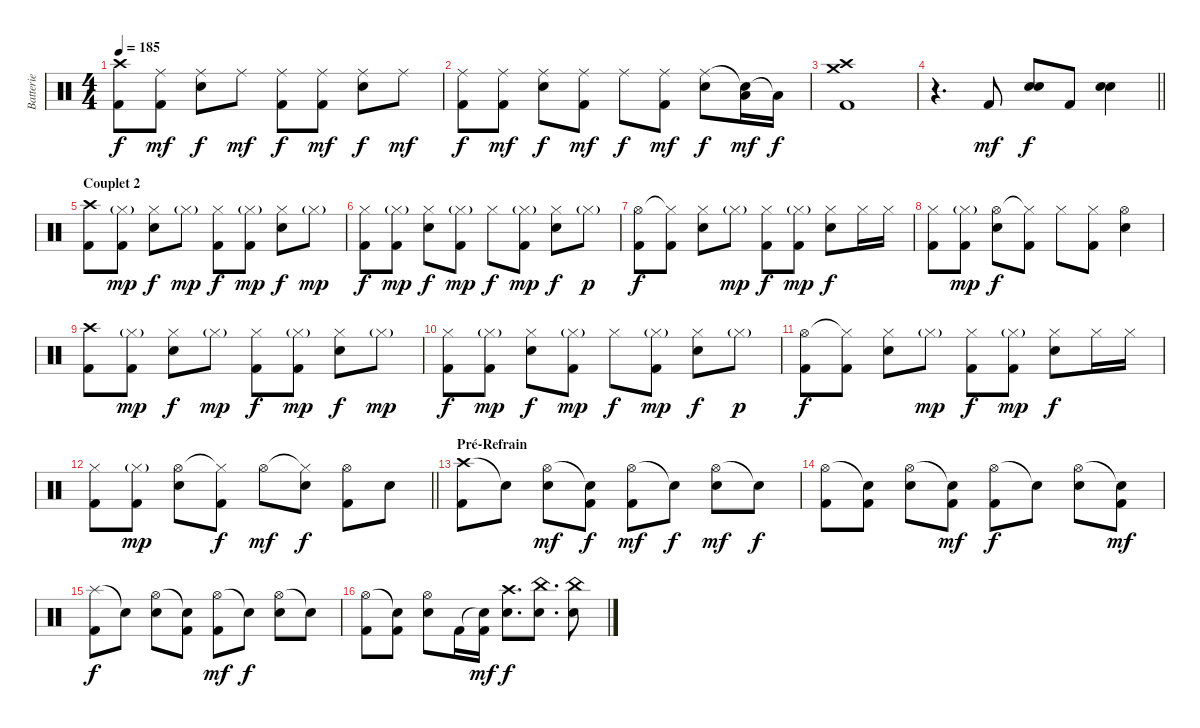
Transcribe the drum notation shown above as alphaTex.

\track ("Batterie" "Batterie") {instrument percussion}
\staff {score}
\articulation defaults
\ts (4 4)
\tempo 185
\clef neutral
\ks c
("Crash high (hit)" "Kick (hit) 2").8{dy f} ("Ride (middle)" "Kick (hit) 2").8{dy mf} ("Ride (middle)" "Electric Snare (hit)").8{dy f} "Ride (middle)".8{dy mf} ("Ride (middle)" "Kick (hit) 2").8{dy f} ("Ride (middle)" "Kick (hit) 2").8{dy mf} ("Ride (middle)" "Electric Snare (hit)").8{dy f} "Ride (middle)".8{dy mf} |
("Ride (middle)" "Kick (hit) 2").8{dy f} ("Ride (middle)" "Kick (hit) 2").8{dy mf} ("Ride (middle)" "Electric Snare (hit)").8{dy f} ("Ride (middle)" "Kick (hit) 2").8{dy mf} "Ride (middle)".8{dy f} ("Ride (middle)" "Kick (hit) 2").8{dy mf} ("Ride (middle)" "Electric Snare (hit)").8{dy f} ("Snare (hit)"{t} "Low Floor Tom (hit)").16{dy mf} "Low Floor Tom (hit)"{t}.16{dy f} |
("Crash high (hit)" "Crash medium (hit)" "Kick (hit) 2").1 |
\barLineRight lightlight
r.4{d} "Kick (hit) 2".8{dy mf} ("Electric Snare (hit)" "Electric Snare (hit)").8{dy f} "Kick (hit) 2".8 ("Electric Snare (hit)" "Electric Snare (hit)").4 |
\section ("" "Couplet 2")
("Crash high (hit)" "Kick (hit) 2").8 ("Hi-Hat (closed)"{g} "Kick (hit) 2").8{dy mp} ("Hi-Hat (closed)" "Electric Snare (hit)").8{dy f} "Hi-Hat (closed)"{g}.8{dy mp} ("Hi-Hat (closed)" "Kick (hit) 2").8{dy f} ("Hi-Hat (closed)"{g} "Kick (hit) 2").8{dy mp} ("Hi-Hat (closed)" "Electric Snare (hit)").8{dy f} "Hi-Hat (closed)"{g}.8{dy mp} |
("Hi-Hat (closed)" "Kick (hit) 2").8{dy f} ("Hi-Hat (closed)"{g} "Kick (hit) 2").8{dy mp} ("Hi-Hat (closed)" "Electric Snare (hit)").8{dy f} ("Hi-Hat (closed)"{g} "Kick (hit) 2").8{dy mp} "Hi-Hat (closed)".8{dy f} ("Hi-Hat (closed)"{g} "Kick (hit) 2").8{dy mp} ("Hi-Hat (closed)" "Electric Snare (hit)").8{dy f} "Hi-Hat (closed)"{g}.8{dy p} |
("Hi-Hat (open)" "Kick (hit) 2").8{dy f} ("Hi-Hat (closed)"{t} "Kick (hit) 2").8 ("Hi-Hat (closed)" "Electric Snare (hit)").8 "Hi-Hat (closed)"{g}.8{dy mp} ("Hi-Hat (closed)" "Kick (hit) 2").8{dy f} ("Hi-Hat (closed)"{g} "Kick (hit) 2").8{dy mp} ("Hi-Hat (closed)" "Electric Snare (hit)").8{dy f} "Hi-Hat (closed)".16 "Hi-Hat (closed)".16 |
("Hi-Hat (closed)" "Kick (hit) 2").8 ("Hi-Hat (closed)"{g} "Kick (hit) 2").8{dy mp} ("Hi-Hat (open)" "Electric Snare (hit)").8{dy f} ("Hi-Hat (closed)"{t} "Kick (hit) 2").8 "Hi-Hat (closed)".8 ("Hi-Hat (closed)" "Kick (hit) 2").8 ("Hi-Hat (open)" "Electric Snare (hit)").4 |
("Crash high (hit)" "Kick (hit) 2").8 ("Hi-Hat (closed)"{g} "Kick (hit) 2").8{dy mp} ("Hi-Hat (closed)" "Electric Snare (hit)").8{dy f} "Hi-Hat (closed)"{g}.8{dy mp} ("Hi-Hat (closed)" "Kick (hit) 2").8{dy f} ("Hi-Hat (closed)"{g} "Kick (hit) 2").8{dy mp} ("Hi-Hat (closed)" "Electric Snare (hit)").8{dy f} "Hi-Hat (closed)"{g}.8{dy mp} |
("Hi-Hat (closed)" "Kick (hit) 2").8{dy f} ("Hi-Hat (closed)"{g} "Kick (hit) 2").8{dy mp} ("Hi-Hat (closed)" "Electric Snare (hit)").8{dy f} ("Hi-Hat (closed)"{g} "Kick (hit) 2").8{dy mp} "Hi-Hat (closed)".8{dy f} ("Hi-Hat (closed)"{g} "Kick (hit) 2").8{dy mp} ("Hi-Hat (closed)" "Electric Snare (hit)").8{dy f} "Hi-Hat (closed)"{g}.8{dy p} |
("Hi-Hat (open)" "Kick (hit) 2").8{dy f} ("Hi-Hat (closed)"{t} "Kick (hit) 2").8 ("Hi-Hat (closed)" "Electric Snare (hit)").8 "Hi-Hat (closed)"{g}.8{dy mp} ("Hi-Hat (closed)" "Kick (hit) 2").8{dy f} ("Hi-Hat (closed)"{g} "Kick (hit) 2").8{dy mp} ("Hi-Hat (closed)" "Electric Snare (hit)").8{dy f} "Hi-Hat (closed)".16 "Hi-Hat (closed)".16 |
\barLineRight lightlight
("Hi-Hat (closed)" "Kick (hit) 2").8 ("Hi-Hat (closed)"{g} "Kick (hit) 2").8{dy mp} ("Hi-Hat (open)" "Electric Snare (hit)").8 ("Hi-Hat (closed)"{t} "Kick (hit) 2").8{dy f} "Hi-Hat (open)".8{dy mf} ("Hi-Hat (closed)"{t} "Electric Snare (hit)").8{dy f} ("Hi-Hat (open)" "Kick (hit) 2").8 "Electric Snare (hit)".8 |
\section ("" "Pré-Refrain")
("Crash high (hit)" "Kick (hit) 2").8 "Snare (hit)"{t}.8 ("Hi-Hat (open)" "Electric Snare (hit)").8{dy mf} ("Snare (hit)"{t} "Kick (hit) 2").8{dy f} ("Hi-Hat (open)" "Kick (hit) 2").8{dy mf} "Snare (hit)"{t}.8{dy f} ("Hi-Hat (open)" "Electric Snare (hit)").8{dy mf} "Snare (hit)"{t}.8{dy f} |
("Hi-Hat (open)" "Kick (hit) 2").8 ("Snare (hit)"{t} "Kick (hit) 2").8 ("Hi-Hat (open)" "Electric Snare (hit)").8 ("Snare (hit)"{t} "Kick (hit) 2").8{dy mf} ("Hi-Hat (open)" "Kick (hit) 2").8{dy f} "Snare (hit)"{t}.8 ("Hi-Hat (open)" "Electric Snare (hit)").8 ("Snare (hit)"{t} "Kick (hit) 2").8{dy mf} |
("Splash (hit)" "Kick (hit) 2").8{dy f} "Snare (hit)"{t}.8 ("Hi-Hat (open)" "Electric Snare (hit)").8 ("Snare (hit)"{t} "Kick (hit) 2").8 ("Hi-Hat (open)" "Kick (hit) 2").8{dy mf} "Snare (hit)"{t}.8{dy f} ("Hi-Hat (open)" "Electric Snare (hit)").8 "Snare (hit)"{t}.8 |
("Hi-Hat (open)" "Kick (hit) 2").8 ("Snare (hit)"{t} "Kick (hit) 2").8 ("Hi-Hat (open)" "Electric Snare (hit)").8 "Kick (hit) 2".16 ("Snare (hit)"{t} "Kick (hit) 2").16{dy mf} ("Crash high (hit)" "Electric Snare (hit)").8{d dy f} ("China (hit)" "Electric Snare (hit)").8{d} ("China (hit)" "Electric Snare (hit)").8
